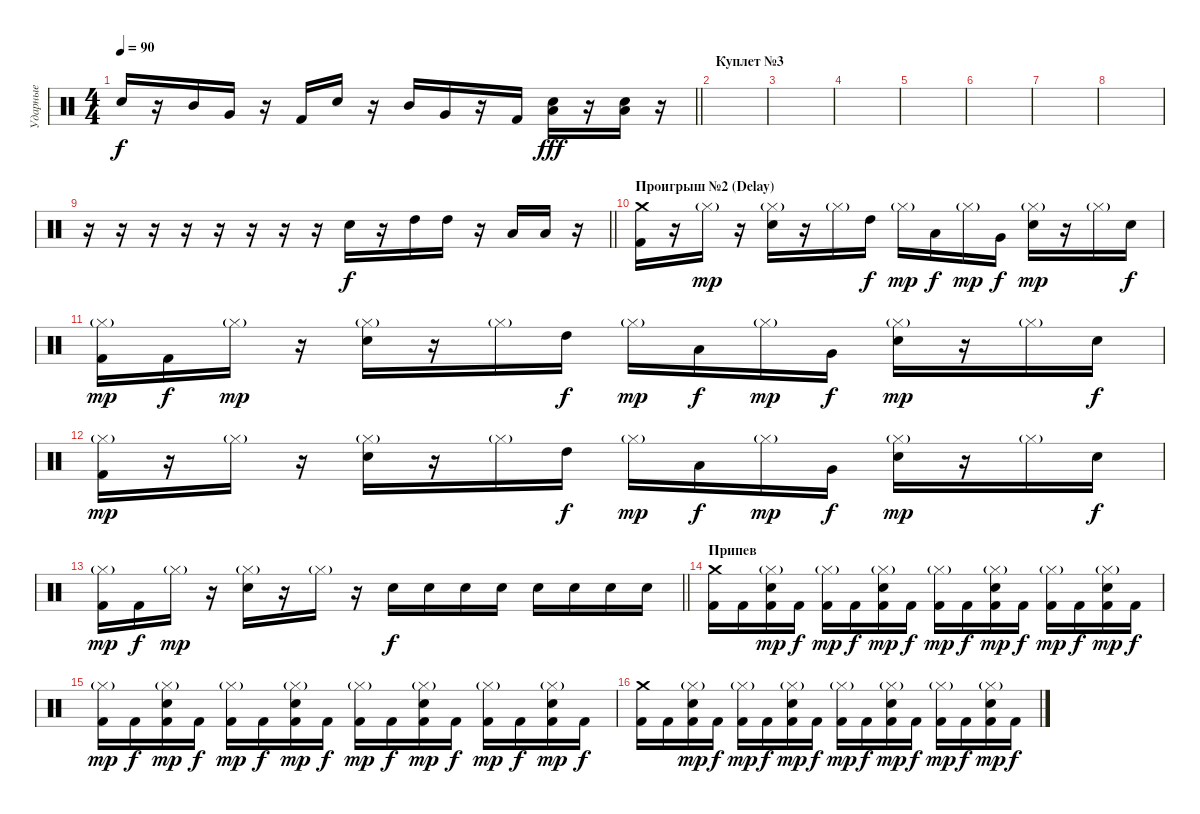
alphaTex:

\track ("Ударные" "Ударные") {instrument percussion}
\staff {score}
\articulation defaults
\ts (4 4)
\tempo 90
\clef neutral
\barLineRight lightlight
\ks c "Snare (hit) 2".16{dy f}
r.16 "Mid Tom (hit)".16 "Very Low Tom (hit)".16 r.16 "Kick (hit) 2".16 "Snare (hit) 2".16 r.16 "Mid Tom (hit)".16 "Very Low Tom (hit)".16 r.16 "Kick (hit) 2".16 ("Snare (hit) 2" "Low Floor Tom (hit)").16{dy fff} r.16 ("Snare (hit) 2" "Low Floor Tom (hit)").16 r.16 |
\section ("" "Куплет №3")
|
|
|
|
|
|
|
\barLineRight lightlight
r.16 r.16 r.16 r.16 r.16 r.16 r.16 r.16 "Snare (hit) 2".16{dy f} r.16 "High Tom (hit)".16 "High Tom (hit)".16 r.16 "Low Tom (hit)".16 "Low Tom (hit)".16 r.16 |
\section ("" "Проигрыш №2 (Delay)")
("Crash medium (hit)" "Kick (hit) 2").16 r.16 "Hi-Hat (closed)"{g}.16{dy mp} r.16 ("Snare (hit) 2" "Hi-Hat (closed)"{g}).16 r.16 "Hi-Hat (closed)"{g}.16 "High Tom (hit)".16{dy f} "Hi-Hat (closed)"{g}.16{dy mp} "Low Tom (hit)".16{dy f} "Hi-Hat (closed)"{g}.16{dy mp} "Very Low Tom (hit)".16{dy f} ("Snare (hit) 2" "Hi-Hat (closed)"{g}).16{dy mp} r.16 "Hi-Hat (closed)"{g}.16 "Snare (hit) 2".16{dy f} |
("Hi-Hat (closed)"{g} "Kick (hit) 2").16{dy mp} "Kick (hit) 2".16{dy f} "Hi-Hat (closed)"{g}.16{dy mp} r.16 ("Snare (hit) 2" "Hi-Hat (closed)"{g}).16 r.16 "Hi-Hat (closed)"{g}.16 "High Tom (hit)".16{dy f} "Hi-Hat (closed)"{g}.16{dy mp} "Low Tom (hit)".16{dy f} "Hi-Hat (closed)"{g}.16{dy mp} "Very Low Tom (hit)".16{dy f} ("Snare (hit) 2" "Hi-Hat (closed)"{g}).16{dy mp} r.16 "Hi-Hat (closed)"{g}.16 "Snare (hit) 2".16{dy f} |
("Hi-Hat (closed)"{g} "Kick (hit) 2").16{dy mp} r.16 "Hi-Hat (closed)"{g}.16 r.16 ("Snare (hit) 2" "Hi-Hat (closed)"{g}).16 r.16 "Hi-Hat (closed)"{g}.16 "High Tom (hit)".16{dy f} "Hi-Hat (closed)"{g}.16{dy mp} "Low Tom (hit)".16{dy f} "Hi-Hat (closed)"{g}.16{dy mp} "Very Low Tom (hit)".16{dy f} ("Snare (hit) 2" "Hi-Hat (closed)"{g}).16{dy mp} r.16 "Hi-Hat (closed)"{g}.16 "Snare (hit) 2".16{dy f} |
\barLineRight lightlight
("Hi-Hat (closed)"{g} "Kick (hit) 2").16{dy mp} "Kick (hit) 2".16{dy f} "Hi-Hat (closed)"{g}.16{dy mp} r.16 ("Snare (hit) 2" "Hi-Hat (closed)"{g}).16 r.16 "Hi-Hat (closed)"{g}.16 r.16 "Snare (hit) 2".16{dy f} "Snare (hit) 2".16 "Snare (hit) 2".16 "Snare (hit) 2".16 "Snare (hit) 2".16 "Snare (hit) 2".16 "Snare (hit) 2".16 "Snare (hit) 2".16 |
\section ("" "Припев")
("Crash medium (hit)" "Kick (hit) 2").16{volume 14} "Kick (hit) 2".16 ("Snare (hit) 2" "Hi-Hat (closed)"{g} "Kick (hit) 2").16{dy mp} "Kick (hit) 2".16{dy f} ("Hi-Hat (closed)"{g} "Kick (hit) 2").16{dy mp} "Kick (hit) 2".16{dy f} ("Snare (hit) 2" "Hi-Hat (closed)"{g} "Kick (hit) 2").16{dy mp} "Kick (hit) 2".16{dy f} ("Hi-Hat (closed)"{g} "Kick (hit) 2").16{dy mp} "Kick (hit) 2".16{dy f} ("Snare (hit) 2" "Hi-Hat (closed)"{g} "Kick (hit) 2").16{dy mp} "Kick (hit) 2".16{dy f} ("Hi-Hat (closed)"{g} "Kick (hit) 2").16{dy mp} "Kick (hit) 2".16{dy f} ("Snare (hit) 2" "Hi-Hat (closed)"{g} "Kick (hit) 2").16{dy mp} "Kick (hit) 2".16{dy f} |
("Hi-Hat (closed)"{g} "Kick (hit) 2").16{dy mp} "Kick (hit) 2".16{dy f} ("Snare (hit) 2" "Hi-Hat (closed)"{g} "Kick (hit) 2").16{dy mp} "Kick (hit) 2".16{dy f} ("Hi-Hat (closed)"{g} "Kick (hit) 2").16{dy mp} "Kick (hit) 2".16{dy f} ("Snare (hit) 2" "Hi-Hat (closed)"{g} "Kick (hit) 2").16{dy mp} "Kick (hit) 2".16{dy f} ("Hi-Hat (closed)"{g} "Kick (hit) 2").16{dy mp} "Kick (hit) 2".16{dy f} ("Snare (hit) 2" "Hi-Hat (closed)"{g} "Kick (hit) 2").16{dy mp} "Kick (hit) 2".16{dy f} ("Hi-Hat (closed)"{g} "Kick (hit) 2").16{dy mp} "Kick (hit) 2".16{dy f} ("Snare (hit) 2" "Hi-Hat (closed)"{g} "Kick (hit) 2").16{dy mp} "Kick (hit) 2".16{dy f} |
("Crash medium (hit)" "Kick (hit) 2").16 "Kick (hit) 2".16 ("Snare (hit) 2" "Hi-Hat (closed)"{g} "Kick (hit) 2").16{dy mp} "Kick (hit) 2".16{dy f} ("Hi-Hat (closed)"{g} "Kick (hit) 2").16{dy mp} "Kick (hit) 2".16{dy f} ("Snare (hit) 2" "Hi-Hat (closed)"{g} "Kick (hit) 2").16{dy mp} "Kick (hit) 2".16{dy f} ("Hi-Hat (closed)"{g} "Kick (hit) 2").16{dy mp} "Kick (hit) 2".16{dy f} ("Snare (hit) 2" "Hi-Hat (closed)"{g} "Kick (hit) 2").16{dy mp} "Kick (hit) 2".16{dy f} ("Hi-Hat (closed)"{g} "Kick (hit) 2").16{dy mp} "Kick (hit) 2".16{dy f} ("Snare (hit) 2" "Hi-Hat (closed)"{g} "Kick (hit) 2").16{dy mp} "Kick (hit) 2".16{dy f}
